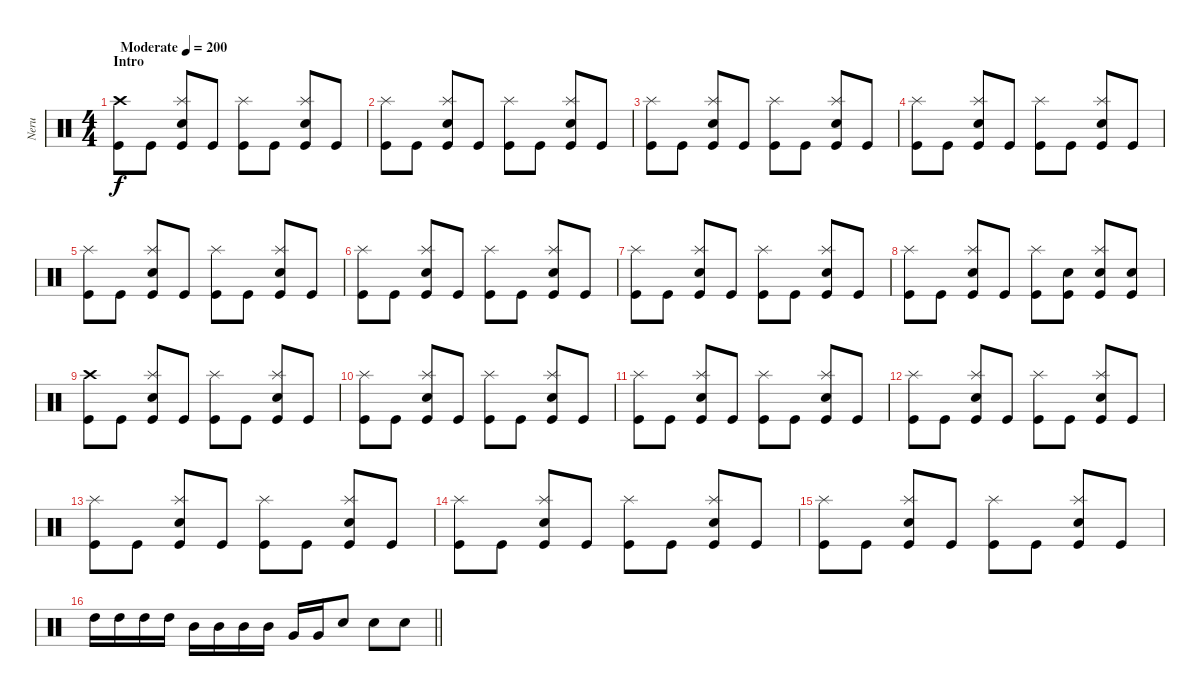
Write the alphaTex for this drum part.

\track ("Neru" "Neru") {instrument percussion}
\staff {score}
\articulation defaults
\ts (4 4)
\section ("" "Intro")
\tempo (200 "Moderate")
\clef neutral
\ks c
("Crash high (hit)" "Kick (hit)").8{dy f} "Kick (hit)".8 ("Splash (hit)" "Electric Snare (hit)" "Kick (hit)").8 "Kick (hit)".8 ("Splash (hit)" "Kick (hit)").8 "Kick (hit)".8 ("Splash (hit)" "Electric Snare (hit)" "Kick (hit)").8 "Kick (hit)".8 |
("Splash (hit)" "Kick (hit)").8 "Kick (hit)".8 ("Splash (hit)" "Electric Snare (hit)" "Kick (hit)").8 "Kick (hit)".8 ("Splash (hit)" "Kick (hit)").8 "Kick (hit)".8 ("Splash (hit)" "Electric Snare (hit)" "Kick (hit)").8 "Kick (hit)".8 |
("Splash (hit)" "Kick (hit)").8 "Kick (hit)".8 ("Splash (hit)" "Electric Snare (hit)" "Kick (hit)").8 "Kick (hit)".8 ("Splash (hit)" "Kick (hit)").8 "Kick (hit)".8 ("Splash (hit)" "Electric Snare (hit)" "Kick (hit)").8 "Kick (hit)".8 |
("Splash (hit)" "Kick (hit)").8 "Kick (hit)".8 ("Splash (hit)" "Electric Snare (hit)" "Kick (hit)").8 "Kick (hit)".8 ("Splash (hit)" "Kick (hit)").8 "Kick (hit)".8 ("Splash (hit)" "Electric Snare (hit)" "Kick (hit)").8 "Kick (hit)".8 |
("Splash (hit)" "Kick (hit)").8 "Kick (hit)".8 ("Splash (hit)" "Electric Snare (hit)" "Kick (hit)").8 "Kick (hit)".8 ("Splash (hit)" "Kick (hit)").8 "Kick (hit)".8 ("Splash (hit)" "Electric Snare (hit)" "Kick (hit)").8 "Kick (hit)".8 |
("Splash (hit)" "Kick (hit)").8 "Kick (hit)".8 ("Splash (hit)" "Electric Snare (hit)" "Kick (hit)").8 "Kick (hit)".8 ("Splash (hit)" "Kick (hit)").8 "Kick (hit)".8 ("Splash (hit)" "Electric Snare (hit)" "Kick (hit)").8 "Kick (hit)".8 |
("Splash (hit)" "Kick (hit)").8 "Kick (hit)".8 ("Splash (hit)" "Electric Snare (hit)" "Kick (hit)").8 "Kick (hit)".8 ("Splash (hit)" "Kick (hit)").8 "Kick (hit)".8 ("Splash (hit)" "Electric Snare (hit)" "Kick (hit)").8 "Kick (hit)".8 |
("Splash (hit)" "Kick (hit)").8 "Kick (hit)".8 ("Splash (hit)" "Electric Snare (hit)" "Kick (hit)").8 "Kick (hit)".8 ("Splash (hit)" "Kick (hit)").8 ("Electric Snare (hit)" "Kick (hit)").8 ("Splash (hit)" "Electric Snare (hit)" "Kick (hit)").8 ("Electric Snare (hit)" "Kick (hit)").8 |
("Crash high (hit)" "Kick (hit)").8 "Kick (hit)".8 ("Splash (hit)" "Electric Snare (hit)" "Kick (hit)").8 "Kick (hit)".8 ("Splash (hit)" "Kick (hit)").8 "Kick (hit)".8 ("Splash (hit)" "Electric Snare (hit)" "Kick (hit)").8 "Kick (hit)".8 |
("Splash (hit)" "Kick (hit)").8 "Kick (hit)".8 ("Splash (hit)" "Electric Snare (hit)" "Kick (hit)").8 "Kick (hit)".8 ("Splash (hit)" "Kick (hit)").8 "Kick (hit)".8 ("Splash (hit)" "Electric Snare (hit)" "Kick (hit)").8 "Kick (hit)".8 |
("Splash (hit)" "Kick (hit)").8 "Kick (hit)".8 ("Splash (hit)" "Electric Snare (hit)" "Kick (hit)").8 "Kick (hit)".8 ("Splash (hit)" "Kick (hit)").8 "Kick (hit)".8 ("Splash (hit)" "Electric Snare (hit)" "Kick (hit)").8 "Kick (hit)".8 |
("Splash (hit)" "Kick (hit)").8 "Kick (hit)".8 ("Splash (hit)" "Electric Snare (hit)" "Kick (hit)").8 "Kick (hit)".8 ("Splash (hit)" "Kick (hit)").8 "Kick (hit)".8 ("Splash (hit)" "Electric Snare (hit)" "Kick (hit)").8 "Kick (hit)".8 |
("Splash (hit)" "Kick (hit)").8 "Kick (hit)".8 ("Splash (hit)" "Electric Snare (hit)" "Kick (hit)").8 "Kick (hit)".8 ("Splash (hit)" "Kick (hit)").8 "Kick (hit)".8 ("Splash (hit)" "Electric Snare (hit)" "Kick (hit)").8 "Kick (hit)".8 |
("Splash (hit)" "Kick (hit)").8 "Kick (hit)".8 ("Splash (hit)" "Electric Snare (hit)" "Kick (hit)").8 "Kick (hit)".8 ("Splash (hit)" "Kick (hit)").8 "Kick (hit)".8 ("Splash (hit)" "Electric Snare (hit)" "Kick (hit)").8 "Kick (hit)".8 |
("Splash (hit)" "Kick (hit)").8 "Kick (hit)".8 ("Splash (hit)" "Electric Snare (hit)" "Kick (hit)").8 "Kick (hit)".8 ("Splash (hit)" "Kick (hit)").8 "Kick (hit)".8 ("Splash (hit)" "Electric Snare (hit)" "Kick (hit)").8 "Kick (hit)".8 |
\barLineRight lightlight "High Tom (hit)".16 "High Tom (hit)".16 "High Tom (hit)".16 "High Tom (hit)".16 "Mid Tom (hit)".16 "Mid Tom (hit)".16 "Mid Tom (hit)".16 "Mid Tom (hit)".16 "Very Low Tom (hit)".16 "Very Low Tom (hit)".16 "Electric Snare (hit)".8 "Electric Snare (hit)".8 "Electric Snare (hit)".8
